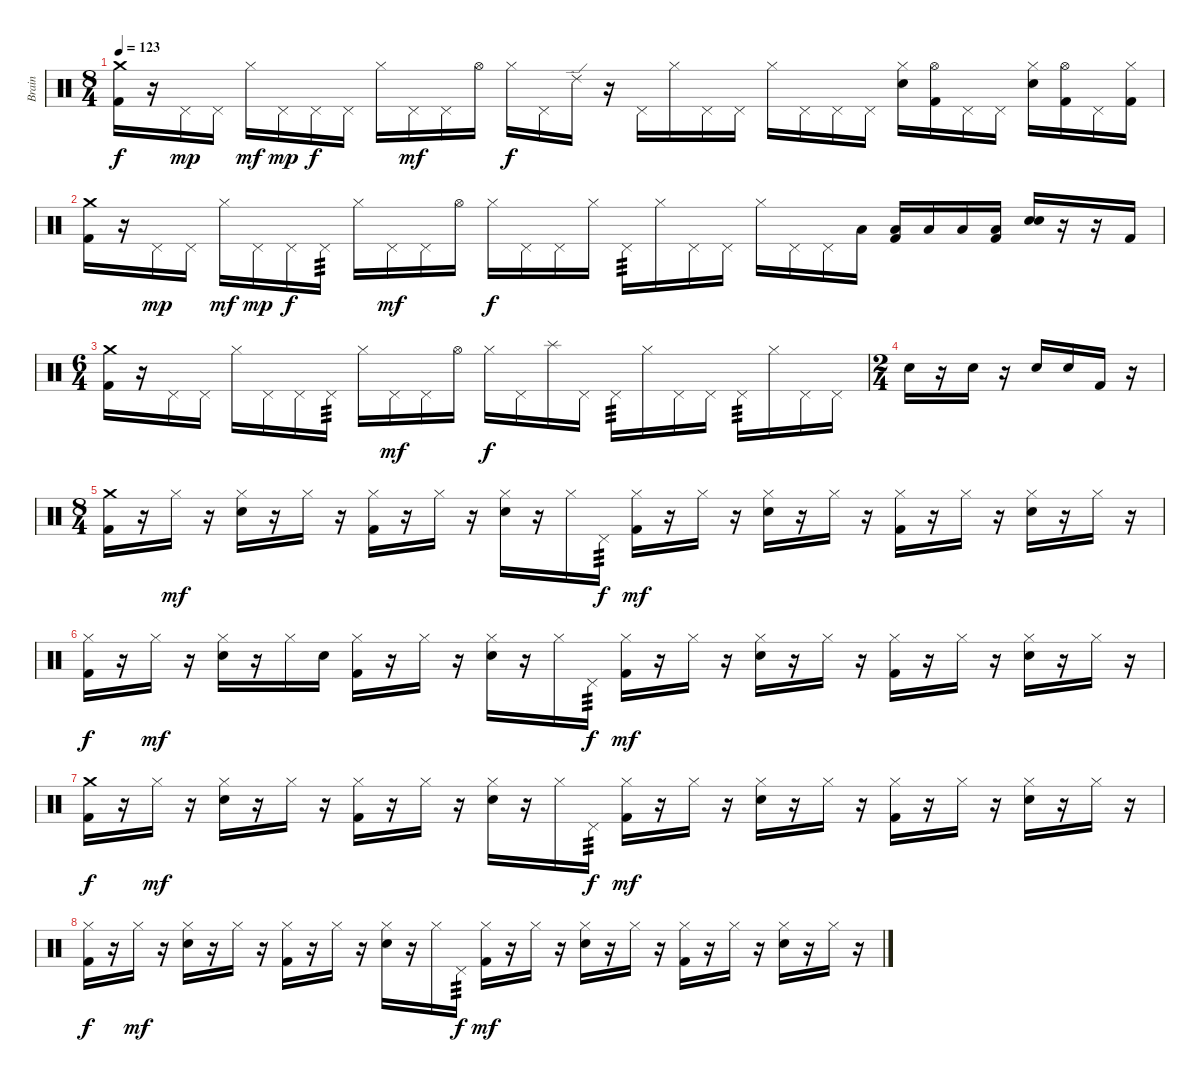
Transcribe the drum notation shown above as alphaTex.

\track ("Brain" "Brain") {instrument percussion}
\staff {score}
\articulation defaults
\ts (8 4)
\tempo 123
\clef neutral
\ks c
("Crash medium (hit)" "Kick (hit) 2").16{dy f} r.16 "Pedal Hi-Hat (hit)".16{dy mp} "Pedal Hi-Hat (hit)".16 "Hi-Hat (closed)".16{dy mf} "Pedal Hi-Hat (hit)".16{dy mp} "Pedal Hi-Hat (hit)".16{dy f} "Pedal Hi-Hat (hit)".16 "Hi-Hat (closed)".16 "Pedal Hi-Hat (hit)".16{dy mf} "Pedal Hi-Hat (hit)".16 "Hi-Hat (open)".16 "Hi-Hat (closed)".16{dy f} "Pedal Hi-Hat (hit)".16 "Ride (edge) 2".16 r.16 "Pedal Hi-Hat (hit)".16 "Hi-Hat (closed)".16 "Pedal Hi-Hat (hit)".16 "Pedal Hi-Hat (hit)".16 "Hi-Hat (closed)".16 "Pedal Hi-Hat (hit)".16 "Pedal Hi-Hat (hit)".16 "Pedal Hi-Hat (hit)".16 ("Hi-Hat (closed)" "Electric Snare (hit)").16 ("Hi-Hat (open)" "Kick (hit) 2").16 "Pedal Hi-Hat (hit)".16 "Pedal Hi-Hat (hit)".16 ("Hi-Hat (closed)" "Electric Snare (hit)").16 ("Hi-Hat (open)" "Kick (hit) 2").16 "Pedal Hi-Hat (hit)".16 ("Hi-Hat (closed)" "Kick (hit) 2").16 |
("Crash medium (hit)" "Kick (hit) 2").16 r.16 "Pedal Hi-Hat (hit)".16{dy mp} "Pedal Hi-Hat (hit)".16 "Hi-Hat (closed)".16{dy mf} "Pedal Hi-Hat (hit)".16{dy mp} "Pedal Hi-Hat (hit)".16{dy f} "Pedal Hi-Hat (hit)".16{tp 3} "Hi-Hat (closed)".16 "Pedal Hi-Hat (hit)".16{dy mf} "Pedal Hi-Hat (hit)".16 "Hi-Hat (open)".16 "Hi-Hat (closed)".16{dy f} "Pedal Hi-Hat (hit)".16 "Pedal Hi-Hat (hit)".16 "Hi-Hat (closed)".16 "Pedal Hi-Hat (hit)".16{tp 3} "Hi-Hat (closed)".16 "Pedal Hi-Hat (hit)".16 "Pedal Hi-Hat (hit)".16 "Hi-Hat (closed)".16 "Pedal Hi-Hat (hit)".16 "Pedal Hi-Hat (hit)".16 "Low Floor Tom (hit)".16 ("Low Floor Tom (hit)" "Kick (hit) 2").16{bd 120} "Low Floor Tom (hit)".16 "Low Floor Tom (hit)".16 ("Low Floor Tom (hit)" "Kick (hit) 2").16 ("Electric Snare (hit)" "Electric Snare (hit)").16{bd 120} r.16 r.16 "Kick (hit) 2".16 |
\ts (6 4)
("Crash medium (hit)" "Kick (hit) 2").16 r.16 "Pedal Hi-Hat (hit)".16 "Pedal Hi-Hat (hit)".16 "Hi-Hat (closed)".16 "Pedal Hi-Hat (hit)".16 "Pedal Hi-Hat (hit)".16 "Pedal Hi-Hat (hit)".16{tp 3} "Hi-Hat (closed)".16 "Pedal Hi-Hat (hit)".16{dy mf} "Pedal Hi-Hat (hit)".16 "Hi-Hat (open)".16 "Hi-Hat (closed)".16{dy f} "Pedal Hi-Hat (hit)".16 "Splash (hit)".16 "Pedal Hi-Hat (hit)".16 "Pedal Hi-Hat (hit)".16{tp 3} "Hi-Hat (closed)".16 "Pedal Hi-Hat (hit)".16 "Pedal Hi-Hat (hit)".16 "Pedal Hi-Hat (hit)".16{tp 3} "Hi-Hat (closed)".16 "Pedal Hi-Hat (hit)".16 "Pedal Hi-Hat (hit)".16 |
\ts (2 4)
"Electric Snare (hit)".16 r.16 "Electric Snare (hit)".16 r.16 "Electric Snare (hit)".16 "Electric Snare (hit)".16 "Kick (hit) 2".16 r.16 |
\ts (8 4)
("Crash medium (hit)" "Kick (hit) 2").16 r.16 "Hi-Hat (closed)".16{dy mf} r.16 ("Hi-Hat (closed)" "Electric Snare (hit)").16 r.16 "Hi-Hat (closed)".16 r.16 ("Hi-Hat (closed)" "Kick (hit) 2").16 r.16 "Hi-Hat (closed)".16 r.16 ("Hi-Hat (closed)" "Electric Snare (hit)").16 r.16 "Hi-Hat (closed)".16 "Pedal Hi-Hat (hit)".16{tp 3 dy f} ("Hi-Hat (closed)" "Kick (hit) 2").16{dy mf} r.16 "Hi-Hat (closed)".16 r.16 ("Hi-Hat (closed)" "Electric Snare (hit)").16 r.16 "Hi-Hat (closed)".16 r.16 ("Hi-Hat (closed)" "Kick (hit) 2").16 r.16 "Hi-Hat (closed)".16 r.16 ("Hi-Hat (closed)" "Electric Snare (hit)").16 r.16 "Hi-Hat (closed)".16 r.16 |
("Hi-Hat (closed)" "Kick (hit) 2").16{dy f} r.16 "Hi-Hat (closed)".16{dy mf} r.16 ("Hi-Hat (closed)" "Electric Snare (hit)").16 r.16 "Hi-Hat (closed)".16 "Electric Snare (hit)".16 ("Hi-Hat (closed)" "Kick (hit) 2").16 r.16 "Hi-Hat (closed)".16 r.16 ("Hi-Hat (closed)" "Electric Snare (hit)").16 r.16 "Hi-Hat (closed)".16 "Pedal Hi-Hat (hit)".16{tp 3 dy f} ("Hi-Hat (closed)" "Kick (hit) 2").16{dy mf} r.16 "Hi-Hat (closed)".16 r.16 ("Hi-Hat (closed)" "Electric Snare (hit)").16 r.16 "Hi-Hat (closed)".16 r.16 ("Hi-Hat (closed)" "Kick (hit) 2").16 r.16 "Hi-Hat (closed)".16 r.16 ("Hi-Hat (closed)" "Electric Snare (hit)").16 r.16 "Hi-Hat (closed)".16 r.16 |
("Crash medium (hit)" "Kick (hit) 2").16{dy f} r.16 "Hi-Hat (closed)".16{dy mf} r.16 ("Hi-Hat (closed)" "Electric Snare (hit)").16 r.16 "Hi-Hat (closed)".16 r.16 ("Hi-Hat (closed)" "Kick (hit) 2").16 r.16 "Hi-Hat (closed)".16 r.16 ("Hi-Hat (closed)" "Electric Snare (hit)").16 r.16 "Hi-Hat (closed)".16 "Pedal Hi-Hat (hit)".16{tp 3 dy f} ("Hi-Hat (closed)" "Kick (hit) 2").16{dy mf} r.16 "Hi-Hat (closed)".16 r.16 ("Hi-Hat (closed)" "Electric Snare (hit)").16 r.16 "Hi-Hat (closed)".16 r.16 ("Hi-Hat (closed)" "Kick (hit) 2").16 r.16 "Hi-Hat (closed)".16 r.16 ("Hi-Hat (closed)" "Electric Snare (hit)").16 r.16 "Hi-Hat (closed)".16 r.16 |
("Hi-Hat (closed)" "Kick (hit) 2").16{dy f} r.16 "Hi-Hat (closed)".16{dy mf} r.16 ("Hi-Hat (closed)" "Electric Snare (hit)").16 r.16 "Hi-Hat (closed)".16 r.16 ("Hi-Hat (closed)" "Kick (hit) 2").16 r.16 "Hi-Hat (closed)".16 r.16 ("Hi-Hat (closed)" "Electric Snare (hit)").16 r.16 "Hi-Hat (closed)".16 "Pedal Hi-Hat (hit)".16{tp 3 dy f} ("Hi-Hat (closed)" "Kick (hit) 2").16{dy mf} r.16 "Hi-Hat (closed)".16 r.16 ("Hi-Hat (closed)" "Electric Snare (hit)").16 r.16 "Hi-Hat (closed)".16 r.16 ("Hi-Hat (closed)" "Kick (hit) 2").16 r.16 "Hi-Hat (closed)".16 r.16 ("Hi-Hat (closed)" "Electric Snare (hit)").16 r.16 "Hi-Hat (closed)".16 r.16
